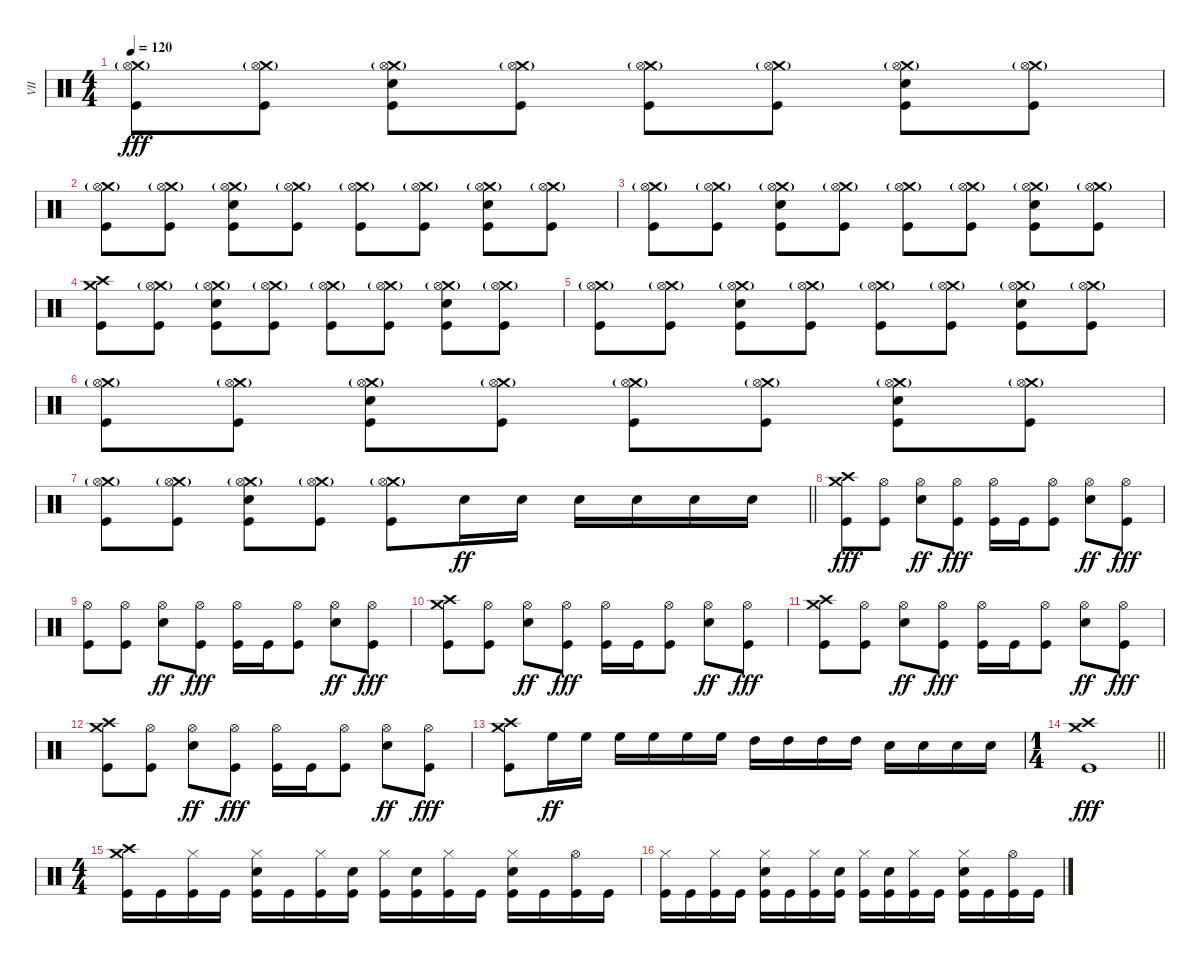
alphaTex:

\track ("VII" "VII") {instrument percussion}
\staff {score}
\articulation defaults
\ts (4 4)
\tempo 120
\clef neutral
\ks c
("Crash medium (hit)"{g} "Hi-Hat (open)" "Kick (hit)").8{dy fff} ("Crash medium (hit)"{g} "Hi-Hat (open)" "Kick (hit)").8 ("Crash medium (hit)"{g} "Hi-Hat (open)" "Snare (hit) 2" "Kick (hit)").8 ("Crash medium (hit)"{g} "Hi-Hat (open)" "Kick (hit)").8 ("Crash medium (hit)"{g} "Hi-Hat (open)" "Kick (hit)").8 ("Crash medium (hit)"{g} "Hi-Hat (open)" "Kick (hit)").8 ("Crash medium (hit)"{g} "Hi-Hat (open)" "Snare (hit) 2" "Kick (hit)").8 ("Crash medium (hit)"{g} "Hi-Hat (open)" "Kick (hit)").8 |
("Crash medium (hit)"{g} "Hi-Hat (open)" "Kick (hit)").8 ("Crash medium (hit)"{g} "Hi-Hat (open)" "Kick (hit)").8 ("Crash medium (hit)"{g} "Hi-Hat (open)" "Snare (hit) 2" "Kick (hit)").8 ("Crash medium (hit)"{g} "Hi-Hat (open)" "Kick (hit)").8 ("Crash medium (hit)"{g} "Hi-Hat (open)" "Kick (hit)").8 ("Crash medium (hit)"{g} "Hi-Hat (open)" "Kick (hit)").8 ("Crash medium (hit)"{g} "Hi-Hat (open)" "Snare (hit) 2" "Kick (hit)").8 ("Crash medium (hit)"{g} "Hi-Hat (open)" "Kick (hit)").8 |
("Crash medium (hit)"{g} "Hi-Hat (open)" "Kick (hit)").8 ("Crash medium (hit)"{g} "Hi-Hat (open)" "Kick (hit)").8 ("Crash medium (hit)"{g} "Hi-Hat (open)" "Snare (hit) 2" "Kick (hit)").8 ("Crash medium (hit)"{g} "Hi-Hat (open)" "Kick (hit)").8 ("Crash medium (hit)"{g} "Hi-Hat (open)" "Kick (hit)").8 ("Crash medium (hit)"{g} "Hi-Hat (open)" "Kick (hit)").8 ("Crash medium (hit)"{g} "Hi-Hat (open)" "Snare (hit) 2" "Kick (hit)").8 ("Crash medium (hit)"{g} "Hi-Hat (open)" "Kick (hit)").8 |
("Crash high (hit)" "Crash medium (hit)" "Kick (hit)").8 ("Crash medium (hit)"{g} "Hi-Hat (open)" "Kick (hit)").8 ("Crash medium (hit)"{g} "Hi-Hat (open)" "Snare (hit) 2" "Kick (hit)").8 ("Crash medium (hit)"{g} "Hi-Hat (open)" "Kick (hit)").8 ("Crash medium (hit)"{g} "Hi-Hat (open)" "Kick (hit)").8 ("Crash medium (hit)"{g} "Hi-Hat (open)" "Kick (hit)").8 ("Crash medium (hit)"{g} "Hi-Hat (open)" "Snare (hit) 2" "Kick (hit)").8 ("Crash medium (hit)"{g} "Hi-Hat (open)" "Kick (hit)").8 |
("Crash medium (hit)"{g} "Hi-Hat (open)" "Kick (hit)").8 ("Crash medium (hit)"{g} "Hi-Hat (open)" "Kick (hit)").8 ("Crash medium (hit)"{g} "Hi-Hat (open)" "Snare (hit) 2" "Kick (hit)").8 ("Crash medium (hit)"{g} "Hi-Hat (open)" "Kick (hit)").8 ("Crash medium (hit)"{g} "Hi-Hat (open)" "Kick (hit)").8 ("Crash medium (hit)"{g} "Hi-Hat (open)" "Kick (hit)").8 ("Crash medium (hit)"{g} "Hi-Hat (open)" "Snare (hit) 2" "Kick (hit)").8 ("Crash medium (hit)"{g} "Hi-Hat (open)" "Kick (hit)").8 |
("Crash medium (hit)"{g} "Hi-Hat (open)" "Kick (hit)").8 ("Crash medium (hit)"{g} "Hi-Hat (open)" "Kick (hit)").8 ("Crash medium (hit)"{g} "Hi-Hat (open)" "Snare (hit) 2" "Kick (hit)").8 ("Crash medium (hit)"{g} "Hi-Hat (open)" "Kick (hit)").8 ("Crash medium (hit)"{g} "Hi-Hat (open)" "Kick (hit)").8 ("Crash medium (hit)"{g} "Hi-Hat (open)" "Kick (hit)").8 ("Crash medium (hit)"{g} "Hi-Hat (open)" "Snare (hit) 2" "Kick (hit)").8 ("Crash medium (hit)"{g} "Hi-Hat (open)" "Kick (hit)").8 |
\barLineRight lightlight
("Crash medium (hit)"{g} "Hi-Hat (open)" "Kick (hit)").8 ("Crash medium (hit)"{g} "Hi-Hat (open)" "Kick (hit)").8 ("Crash medium (hit)"{g} "Hi-Hat (open)" "Snare (hit) 2" "Kick (hit)").8 ("Crash medium (hit)"{g} "Hi-Hat (open)" "Kick (hit)").8 ("Crash medium (hit)"{g} "Hi-Hat (open)" "Kick (hit)").8 "Snare (hit) 2".16{dy ff} "Snare (hit) 2".16 "Snare (hit) 2".16 "Snare (hit) 2".16 "Snare (hit) 2".16 "Snare (hit) 2".16 |
("Crash high (hit)" "Crash medium (hit)" "Kick (hit)").8{dy fff} ("Hi-Hat (open)" "Kick (hit)").8 ("Hi-Hat (open)" "Snare (hit) 2").8{dy ff} ("Hi-Hat (open)" "Kick (hit)").8{dy fff} ("Hi-Hat (open)" "Kick (hit)").16 "Kick (hit)".16 ("Hi-Hat (open)" "Kick (hit)").8 ("Hi-Hat (open)" "Snare (hit) 2").8{dy ff} ("Hi-Hat (open)" "Kick (hit)").8{dy fff} |
("Hi-Hat (open)" "Kick (hit)").8 ("Hi-Hat (open)" "Kick (hit)").8 ("Hi-Hat (open)" "Snare (hit) 2").8{dy ff} ("Hi-Hat (open)" "Kick (hit)").8{dy fff} ("Hi-Hat (open)" "Kick (hit)").16 "Kick (hit)".16 ("Hi-Hat (open)" "Kick (hit)").8 ("Hi-Hat (open)" "Snare (hit) 2").8{dy ff} ("Hi-Hat (open)" "Kick (hit)").8{dy fff} |
("Crash high (hit)" "Crash medium (hit)" "Kick (hit)").8 ("Hi-Hat (open)" "Kick (hit)").8 ("Hi-Hat (open)" "Snare (hit) 2").8{dy ff} ("Hi-Hat (open)" "Kick (hit)").8{dy fff} ("Hi-Hat (open)" "Kick (hit)").16 "Kick (hit)".16 ("Hi-Hat (open)" "Kick (hit)").8 ("Hi-Hat (open)" "Snare (hit) 2").8{dy ff} ("Hi-Hat (open)" "Kick (hit)").8{dy fff} |
("Crash high (hit)" "Crash medium (hit)" "Kick (hit)").8 ("Hi-Hat (open)" "Kick (hit)").8 ("Hi-Hat (open)" "Snare (hit) 2").8{dy ff} ("Hi-Hat (open)" "Kick (hit)").8{dy fff} ("Hi-Hat (open)" "Kick (hit)").16 "Kick (hit)".16 ("Hi-Hat (open)" "Kick (hit)").8 ("Hi-Hat (open)" "Snare (hit) 2").8{dy ff} ("Hi-Hat (open)" "Kick (hit)").8{dy fff} |
("Crash high (hit)" "Crash medium (hit)" "Kick (hit)").8 ("Hi-Hat (open)" "Kick (hit)").8 ("Hi-Hat (open)" "Snare (hit) 2").8{dy ff} ("Hi-Hat (open)" "Kick (hit)").8{dy fff} ("Hi-Hat (open)" "Kick (hit)").16 "Kick (hit)".16 ("Hi-Hat (open)" "Kick (hit)").8 ("Hi-Hat (open)" "Snare (hit) 2").8{dy ff} ("Hi-Hat (open)" "Kick (hit)").8{dy fff} |
("Crash high (hit)" "Crash medium (hit)" "Kick (hit)").8 "High Floor Tom (hit)".16{dy ff} "High Floor Tom (hit)".16 "High Floor Tom (hit)".16 "High Floor Tom (hit)".16 "High Floor Tom (hit)".16 "High Floor Tom (hit)".16 "High Tom (hit)".16 "High Tom (hit)".16 "High Tom (hit)".16 "High Tom (hit)".16 "Snare (hit) 2".16 "Snare (hit) 2".16 "Snare (hit) 2".16 "Snare (hit) 2".16 |
\ts (1 4)
\barLineRight lightlight
("Crash high (hit)" "Crash medium (hit)" "Kick (hit)").1{dy fff} |
\ts (4 4)
("Crash high (hit)" "Crash medium (hit)" "Kick (hit)").16 "Kick (hit)".16 ("Hi-Hat (closed)" "Kick (hit)").16 "Kick (hit)".16 ("Hi-Hat (closed)" "Snare (hit) 2" "Kick (hit)").16 "Kick (hit)".16 ("Hi-Hat (closed)" "Kick (hit)").16 ("Snare (hit) 2" "Kick (hit)").16 ("Hi-Hat (closed)" "Kick (hit)").16 ("Snare (hit) 2" "Kick (hit)").16 ("Hi-Hat (closed)" "Kick (hit)").16 "Kick (hit)".16 ("Hi-Hat (closed)" "Snare (hit) 2" "Kick (hit)").16 "Kick (hit)".16 ("Hi-Hat (open)" "Kick (hit)").16 "Kick (hit)".16 |
("Hi-Hat (closed)" "Kick (hit)").16 "Kick (hit)".16 ("Hi-Hat (closed)" "Kick (hit)").16 "Kick (hit)".16 ("Hi-Hat (closed)" "Snare (hit) 2" "Kick (hit)").16 "Kick (hit)".16 ("Hi-Hat (closed)" "Kick (hit)").16 ("Snare (hit) 2" "Kick (hit)").16 ("Hi-Hat (closed)" "Kick (hit)").16 ("Snare (hit) 2" "Kick (hit)").16 ("Hi-Hat (closed)" "Kick (hit)").16 "Kick (hit)".16 ("Hi-Hat (closed)" "Snare (hit) 2" "Kick (hit)").16 "Kick (hit)".16 ("Hi-Hat (open)" "Kick (hit)").16 "Kick (hit)".16
